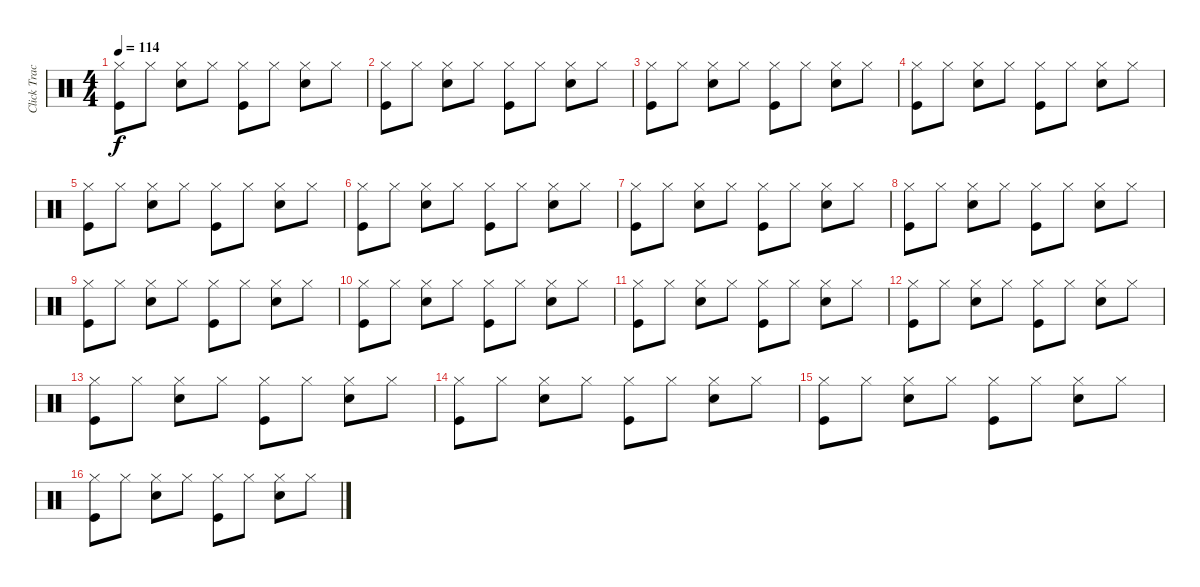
\track ("Click Track" "Click Trac") {instrument percussion}
\staff {score}
\articulation defaults
\ts (4 4)
\tempo 114
\clef neutral
\ks c
("Hi-Hat (closed)" "Kick (hit)").8{dy f} "Hi-Hat (closed)".8 ("Hi-Hat (closed)" "Snare (hit) 2").8 "Hi-Hat (closed)".8 ("Hi-Hat (closed)" "Kick (hit)").8 "Hi-Hat (closed)".8 ("Hi-Hat (closed)" "Snare (hit) 2").8 "Hi-Hat (closed)".8 |
("Hi-Hat (closed)" "Kick (hit)").8 "Hi-Hat (closed)".8 ("Hi-Hat (closed)" "Snare (hit) 2").8 "Hi-Hat (closed)".8 ("Hi-Hat (closed)" "Kick (hit)").8 "Hi-Hat (closed)".8 ("Hi-Hat (closed)" "Snare (hit) 2").8 "Hi-Hat (closed)".8 |
("Hi-Hat (closed)" "Kick (hit)").8 "Hi-Hat (closed)".8 ("Hi-Hat (closed)" "Snare (hit) 2").8 "Hi-Hat (closed)".8 ("Hi-Hat (closed)" "Kick (hit)").8 "Hi-Hat (closed)".8 ("Hi-Hat (closed)" "Snare (hit) 2").8 "Hi-Hat (closed)".8 |
("Hi-Hat (closed)" "Kick (hit)").8 "Hi-Hat (closed)".8 ("Hi-Hat (closed)" "Snare (hit) 2").8 "Hi-Hat (closed)".8 ("Hi-Hat (closed)" "Kick (hit)").8 "Hi-Hat (closed)".8 ("Hi-Hat (closed)" "Snare (hit) 2").8 "Hi-Hat (closed)".8 |
("Hi-Hat (closed)" "Kick (hit)").8 "Hi-Hat (closed)".8 ("Hi-Hat (closed)" "Snare (hit) 2").8 "Hi-Hat (closed)".8 ("Hi-Hat (closed)" "Kick (hit)").8 "Hi-Hat (closed)".8 ("Hi-Hat (closed)" "Snare (hit) 2").8 "Hi-Hat (closed)".8 |
("Hi-Hat (closed)" "Kick (hit)").8 "Hi-Hat (closed)".8 ("Hi-Hat (closed)" "Snare (hit) 2").8 "Hi-Hat (closed)".8 ("Hi-Hat (closed)" "Kick (hit)").8 "Hi-Hat (closed)".8 ("Hi-Hat (closed)" "Snare (hit) 2").8 "Hi-Hat (closed)".8 |
("Hi-Hat (closed)" "Kick (hit)").8 "Hi-Hat (closed)".8 ("Hi-Hat (closed)" "Snare (hit) 2").8 "Hi-Hat (closed)".8 ("Hi-Hat (closed)" "Kick (hit)").8 "Hi-Hat (closed)".8 ("Hi-Hat (closed)" "Snare (hit) 2").8 "Hi-Hat (closed)".8 |
("Hi-Hat (closed)" "Kick (hit)").8 "Hi-Hat (closed)".8 ("Hi-Hat (closed)" "Snare (hit) 2").8 "Hi-Hat (closed)".8 ("Hi-Hat (closed)" "Kick (hit)").8 "Hi-Hat (closed)".8 ("Hi-Hat (closed)" "Snare (hit) 2").8 "Hi-Hat (closed)".8 |
("Hi-Hat (closed)" "Kick (hit)").8 "Hi-Hat (closed)".8 ("Hi-Hat (closed)" "Snare (hit) 2").8 "Hi-Hat (closed)".8 ("Hi-Hat (closed)" "Kick (hit)").8 "Hi-Hat (closed)".8 ("Hi-Hat (closed)" "Snare (hit) 2").8 "Hi-Hat (closed)".8 |
("Hi-Hat (closed)" "Kick (hit)").8 "Hi-Hat (closed)".8 ("Hi-Hat (closed)" "Snare (hit) 2").8 "Hi-Hat (closed)".8 ("Hi-Hat (closed)" "Kick (hit)").8 "Hi-Hat (closed)".8 ("Hi-Hat (closed)" "Snare (hit) 2").8 "Hi-Hat (closed)".8 |
("Hi-Hat (closed)" "Kick (hit)").8 "Hi-Hat (closed)".8 ("Hi-Hat (closed)" "Snare (hit) 2").8 "Hi-Hat (closed)".8 ("Hi-Hat (closed)" "Kick (hit)").8 "Hi-Hat (closed)".8 ("Hi-Hat (closed)" "Snare (hit) 2").8 "Hi-Hat (closed)".8 |
("Hi-Hat (closed)" "Kick (hit)").8 "Hi-Hat (closed)".8 ("Hi-Hat (closed)" "Snare (hit) 2").8 "Hi-Hat (closed)".8 ("Hi-Hat (closed)" "Kick (hit)").8 "Hi-Hat (closed)".8 ("Hi-Hat (closed)" "Snare (hit) 2").8 "Hi-Hat (closed)".8 |
("Hi-Hat (closed)" "Kick (hit)").8 "Hi-Hat (closed)".8 ("Hi-Hat (closed)" "Snare (hit) 2").8 "Hi-Hat (closed)".8 ("Hi-Hat (closed)" "Kick (hit)").8 "Hi-Hat (closed)".8 ("Hi-Hat (closed)" "Snare (hit) 2").8 "Hi-Hat (closed)".8 |
("Hi-Hat (closed)" "Kick (hit)").8 "Hi-Hat (closed)".8 ("Hi-Hat (closed)" "Snare (hit) 2").8 "Hi-Hat (closed)".8 ("Hi-Hat (closed)" "Kick (hit)").8 "Hi-Hat (closed)".8 ("Hi-Hat (closed)" "Snare (hit) 2").8 "Hi-Hat (closed)".8 |
("Hi-Hat (closed)" "Kick (hit)").8 "Hi-Hat (closed)".8 ("Hi-Hat (closed)" "Snare (hit) 2").8 "Hi-Hat (closed)".8 ("Hi-Hat (closed)" "Kick (hit)").8 "Hi-Hat (closed)".8 ("Hi-Hat (closed)" "Snare (hit) 2").8 "Hi-Hat (closed)".8 |
("Hi-Hat (closed)" "Kick (hit)").8 "Hi-Hat (closed)".8 ("Hi-Hat (closed)" "Snare (hit) 2").8 "Hi-Hat (closed)".8 ("Hi-Hat (closed)" "Kick (hit)").8 "Hi-Hat (closed)".8 ("Hi-Hat (closed)" "Snare (hit) 2").8 "Hi-Hat (closed)".8
